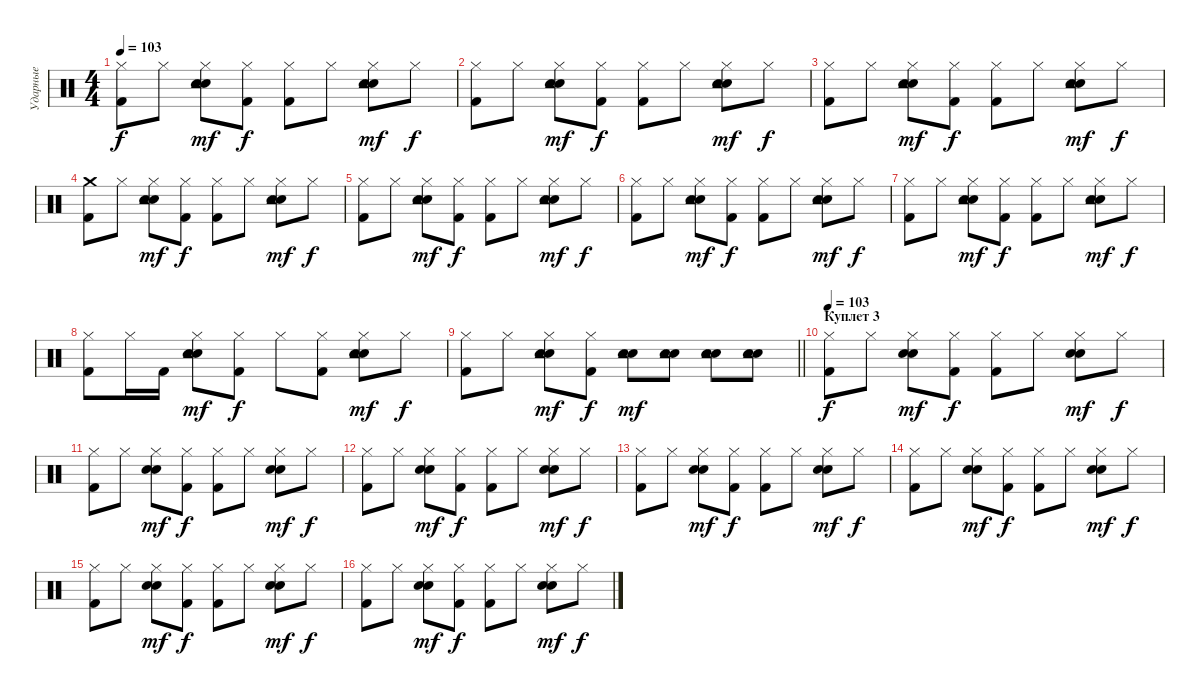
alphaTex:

\track ("Ударные" "Ударные") {instrument percussion}
\staff {score}
\articulation defaults
\ts (4 4)
\tempo 103
\clef neutral
\ks c
("Hi-Hat (closed)" "Kick (hit) 2").8{dy f} "Hi-Hat (closed)".8 ("Hi-Hat (closed)" "Electric Snare (hit)" "Snare (hit) 2" "Tambourine (hit)").8{dy mf} ("Hi-Hat (closed)" "Kick (hit) 2").8{dy f} ("Hi-Hat (closed)" "Kick (hit) 2").8 "Hi-Hat (closed)".8 ("Hi-Hat (closed)" "Electric Snare (hit)" "Snare (hit) 2" "Tambourine (hit)").8{dy mf} "Hi-Hat (closed)".8{dy f} |
("Hi-Hat (closed)" "Kick (hit) 2").8 "Hi-Hat (closed)".8 ("Hi-Hat (closed)" "Electric Snare (hit)" "Snare (hit) 2" "Tambourine (hit)").8{dy mf} ("Hi-Hat (closed)" "Kick (hit) 2").8{dy f} ("Hi-Hat (closed)" "Kick (hit) 2").8 "Hi-Hat (closed)".8 ("Hi-Hat (closed)" "Electric Snare (hit)" "Snare (hit) 2" "Tambourine (hit)").8{dy mf} "Hi-Hat (closed)".8{dy f} |
("Hi-Hat (closed)" "Kick (hit) 2").8 "Hi-Hat (closed)".8 ("Hi-Hat (closed)" "Electric Snare (hit)" "Snare (hit) 2" "Tambourine (hit)").8{dy mf} ("Hi-Hat (closed)" "Kick (hit) 2").8{dy f} ("Hi-Hat (closed)" "Kick (hit) 2").8 "Hi-Hat (closed)".8 ("Hi-Hat (closed)" "Electric Snare (hit)" "Snare (hit) 2" "Tambourine (hit)").8{dy mf} "Hi-Hat (closed)".8{dy f} |
("Crash medium (hit)" "Kick (hit) 2").8 "Hi-Hat (closed)".8 ("Hi-Hat (closed)" "Electric Snare (hit)" "Snare (hit) 2" "Tambourine (hit)").8{dy mf} ("Hi-Hat (closed)" "Kick (hit) 2").8{dy f} ("Hi-Hat (closed)" "Kick (hit) 2").8 "Hi-Hat (closed)".8 ("Hi-Hat (closed)" "Electric Snare (hit)" "Snare (hit) 2" "Tambourine (hit)").8{dy mf} "Hi-Hat (closed)".8{dy f} |
("Hi-Hat (closed)" "Kick (hit) 2").8 "Hi-Hat (closed)".8 ("Hi-Hat (closed)" "Electric Snare (hit)" "Snare (hit) 2" "Tambourine (hit)").8{dy mf} ("Hi-Hat (closed)" "Kick (hit) 2").8{dy f} ("Hi-Hat (closed)" "Kick (hit) 2").8 "Hi-Hat (closed)".8 ("Hi-Hat (closed)" "Electric Snare (hit)" "Snare (hit) 2" "Tambourine (hit)").8{dy mf} "Hi-Hat (closed)".8{dy f} |
("Hi-Hat (closed)" "Kick (hit) 2").8 "Hi-Hat (closed)".8 ("Hi-Hat (closed)" "Electric Snare (hit)" "Snare (hit) 2" "Tambourine (hit)").8{dy mf} ("Hi-Hat (closed)" "Kick (hit) 2").8{dy f} ("Hi-Hat (closed)" "Kick (hit) 2").8 "Hi-Hat (closed)".8 ("Hi-Hat (closed)" "Electric Snare (hit)" "Snare (hit) 2" "Tambourine (hit)").8{dy mf} "Hi-Hat (closed)".8{dy f} |
("Hi-Hat (closed)" "Kick (hit) 2").8 "Hi-Hat (closed)".8 ("Hi-Hat (closed)" "Electric Snare (hit)" "Snare (hit) 2" "Tambourine (hit)").8{dy mf} ("Hi-Hat (closed)" "Kick (hit) 2").8{dy f} ("Hi-Hat (closed)" "Kick (hit) 2").8 "Hi-Hat (closed)".8 ("Hi-Hat (closed)" "Electric Snare (hit)" "Snare (hit) 2" "Tambourine (hit)").8{dy mf} "Hi-Hat (closed)".8{dy f} |
("Hi-Hat (closed)" "Kick (hit) 2").8 "Hi-Hat (closed)".16 "Kick (hit) 2".16 ("Hi-Hat (closed)" "Electric Snare (hit)" "Snare (hit) 2" "Tambourine (hit)").8{dy mf} ("Hi-Hat (closed)" "Kick (hit) 2").8{dy f} "Hi-Hat (closed)".8 ("Hi-Hat (closed)" "Kick (hit) 2").8 ("Hi-Hat (closed)" "Electric Snare (hit)" "Snare (hit) 2" "Tambourine (hit)").8{dy mf} "Hi-Hat (closed)".8{dy f} |
\barLineRight lightlight
("Hi-Hat (closed)" "Kick (hit) 2").8 "Hi-Hat (closed)".8 ("Hi-Hat (closed)" "Electric Snare (hit)" "Snare (hit) 2" "Tambourine (hit)").8{dy mf} ("Hi-Hat (closed)" "Kick (hit) 2").8{dy f} ("Electric Snare (hit)" "Snare (hit) 2" "Tambourine (hit)").8{dy mf} ("Electric Snare (hit)" "Snare (hit) 2" "Tambourine (hit)").8 ("Electric Snare (hit)" "Snare (hit) 2" "Tambourine (hit)").8 ("Electric Snare (hit)" "Snare (hit) 2" "Tambourine (hit)").8 |
\section ("" "Куплет 3")
\tempo 103
("Hi-Hat (closed)" "Kick (hit) 2").8{dy f} "Hi-Hat (closed)".8 ("Hi-Hat (closed)" "Electric Snare (hit)" "Snare (hit) 2").8{dy mf} ("Hi-Hat (closed)" "Kick (hit) 2").8{dy f} ("Hi-Hat (closed)" "Kick (hit) 2").8 "Hi-Hat (closed)".8 ("Hi-Hat (closed)" "Electric Snare (hit)" "Snare (hit) 2").8{dy mf} "Hi-Hat (closed)".8{dy f} |
("Hi-Hat (closed)" "Kick (hit) 2").8 "Hi-Hat (closed)".8 ("Hi-Hat (closed)" "Electric Snare (hit)" "Snare (hit) 2").8{dy mf} ("Hi-Hat (closed)" "Kick (hit) 2").8{dy f} ("Hi-Hat (closed)" "Kick (hit) 2").8 "Hi-Hat (closed)".8 ("Hi-Hat (closed)" "Electric Snare (hit)" "Snare (hit) 2").8{dy mf} "Hi-Hat (closed)".8{dy f} |
("Hi-Hat (closed)" "Kick (hit) 2").8 "Hi-Hat (closed)".8 ("Hi-Hat (closed)" "Electric Snare (hit)" "Snare (hit) 2").8{dy mf} ("Hi-Hat (closed)" "Kick (hit) 2").8{dy f} ("Hi-Hat (closed)" "Kick (hit) 2").8 "Hi-Hat (closed)".8 ("Hi-Hat (closed)" "Electric Snare (hit)" "Snare (hit) 2").8{dy mf} "Hi-Hat (closed)".8{dy f} |
("Hi-Hat (closed)" "Kick (hit) 2").8 "Hi-Hat (closed)".8 ("Hi-Hat (closed)" "Electric Snare (hit)" "Snare (hit) 2").8{dy mf} ("Hi-Hat (closed)" "Kick (hit) 2").8{dy f} ("Hi-Hat (closed)" "Kick (hit) 2").8 "Hi-Hat (closed)".8 ("Hi-Hat (closed)" "Electric Snare (hit)" "Snare (hit) 2").8{dy mf} "Hi-Hat (closed)".8{dy f} |
("Hi-Hat (closed)" "Kick (hit) 2").8 "Hi-Hat (closed)".8 ("Hi-Hat (closed)" "Electric Snare (hit)" "Snare (hit) 2").8{dy mf} ("Hi-Hat (closed)" "Kick (hit) 2").8{dy f} ("Hi-Hat (closed)" "Kick (hit) 2").8 "Hi-Hat (closed)".8 ("Hi-Hat (closed)" "Electric Snare (hit)" "Snare (hit) 2").8{dy mf} "Hi-Hat (closed)".8{dy f} |
("Hi-Hat (closed)" "Kick (hit) 2").8 "Hi-Hat (closed)".8 ("Hi-Hat (closed)" "Electric Snare (hit)" "Snare (hit) 2").8{dy mf} ("Hi-Hat (closed)" "Kick (hit) 2").8{dy f} ("Hi-Hat (closed)" "Kick (hit) 2").8 "Hi-Hat (closed)".8 ("Hi-Hat (closed)" "Electric Snare (hit)" "Snare (hit) 2").8{dy mf} "Hi-Hat (closed)".8{dy f} |
("Hi-Hat (closed)" "Kick (hit) 2").8 "Hi-Hat (closed)".8 ("Hi-Hat (closed)" "Electric Snare (hit)" "Snare (hit) 2").8{dy mf} ("Hi-Hat (closed)" "Kick (hit) 2").8{dy f} ("Hi-Hat (closed)" "Kick (hit) 2").8 "Hi-Hat (closed)".8 ("Hi-Hat (closed)" "Electric Snare (hit)" "Snare (hit) 2").8{dy mf} "Hi-Hat (closed)".8{dy f}
